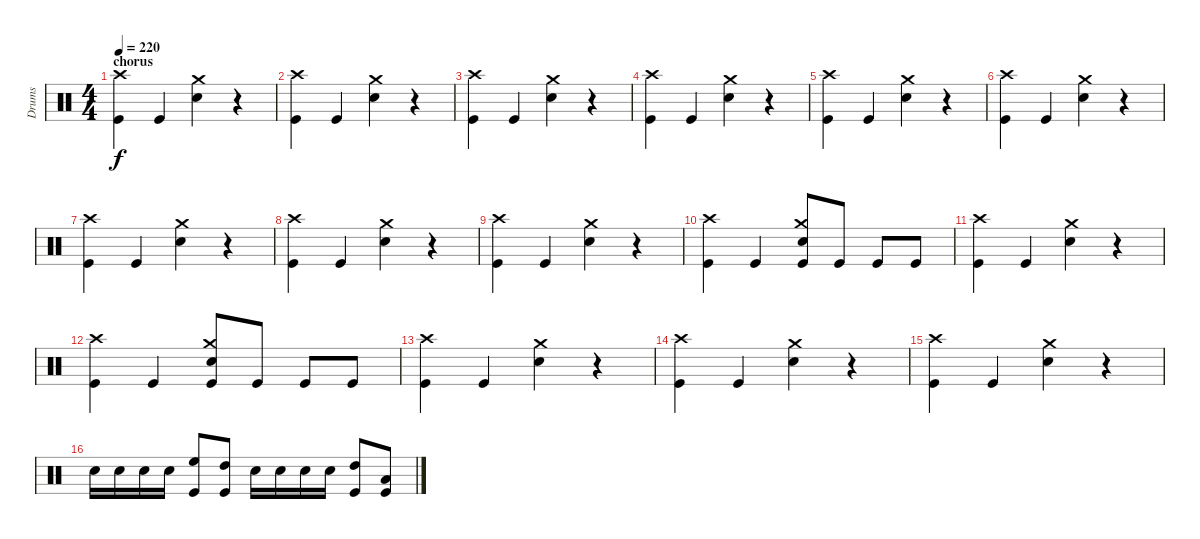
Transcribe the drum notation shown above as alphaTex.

\track ("Drums" "Drums") {instrument percussion}
\staff {score}
\articulation defaults
\ts (4 4)
\section ("" "chorus")
\tempo 220
\clef neutral
\ks c
("Crash high (hit)" "Kick (hit)").4{dy f} "Kick (hit)".4 ("Crash medium (hit)" "Electric Snare (hit)").4 r.4 |
("Crash high (hit)" "Kick (hit)").4 "Kick (hit)".4 ("Crash medium (hit)" "Electric Snare (hit)").4 r.4 |
("Crash high (hit)" "Kick (hit)").4 "Kick (hit)".4 ("Crash medium (hit)" "Electric Snare (hit)").4 r.4 |
("Crash high (hit)" "Kick (hit)").4 "Kick (hit)".4 ("Crash medium (hit)" "Electric Snare (hit)").4 r.4 |
("Crash high (hit)" "Kick (hit)").4 "Kick (hit)".4 ("Crash medium (hit)" "Electric Snare (hit)").4 r.4 |
("Crash high (hit)" "Kick (hit)").4 "Kick (hit)".4 ("Crash medium (hit)" "Electric Snare (hit)").4 r.4 |
("Crash high (hit)" "Kick (hit)").4 "Kick (hit)".4 ("Crash medium (hit)" "Electric Snare (hit)").4 r.4 |
("Crash high (hit)" "Kick (hit)").4 "Kick (hit)".4 ("Crash medium (hit)" "Electric Snare (hit)").4 r.4 |
("Crash high (hit)" "Kick (hit)").4 "Kick (hit)".4 ("Crash medium (hit)" "Electric Snare (hit)").4 r.4 |
("Crash high (hit)" "Kick (hit)").4 "Kick (hit)".4 ("Crash medium (hit)" "Electric Snare (hit)" "Kick (hit)").8 "Kick (hit)".8 "Kick (hit)".8 "Kick (hit)".8 |
("Crash high (hit)" "Kick (hit)").4 "Kick (hit)".4 ("Crash medium (hit)" "Electric Snare (hit)").4 r.4 |
("Crash high (hit)" "Kick (hit)").4 "Kick (hit)".4 ("Crash medium (hit)" "Electric Snare (hit)" "Kick (hit)").8 "Kick (hit)".8 "Kick (hit)".8 "Kick (hit)".8 |
("Crash high (hit)" "Kick (hit)").4 "Kick (hit)".4 ("Crash medium (hit)" "Electric Snare (hit)").4 r.4 |
("Crash high (hit)" "Kick (hit)").4 "Kick (hit)".4 ("Crash medium (hit)" "Electric Snare (hit)").4 r.4 |
("Crash high (hit)" "Kick (hit)").4 "Kick (hit)".4 ("Crash medium (hit)" "Electric Snare (hit)").4 r.4 |
"Electric Snare (hit)".16 "Electric Snare (hit)".16 "Electric Snare (hit)".16 "Electric Snare (hit)".16 ("High Floor Tom (hit)" "Kick (hit)").8 ("High Tom (hit)" "Kick (hit)").8 "Electric Snare (hit)".16 "Electric Snare (hit)".16 "Electric Snare (hit)".16 "Electric Snare (hit)".16 ("High Tom (hit)" "Kick (hit)").8 ("Low Tom (hit)" "Kick (hit)").8
